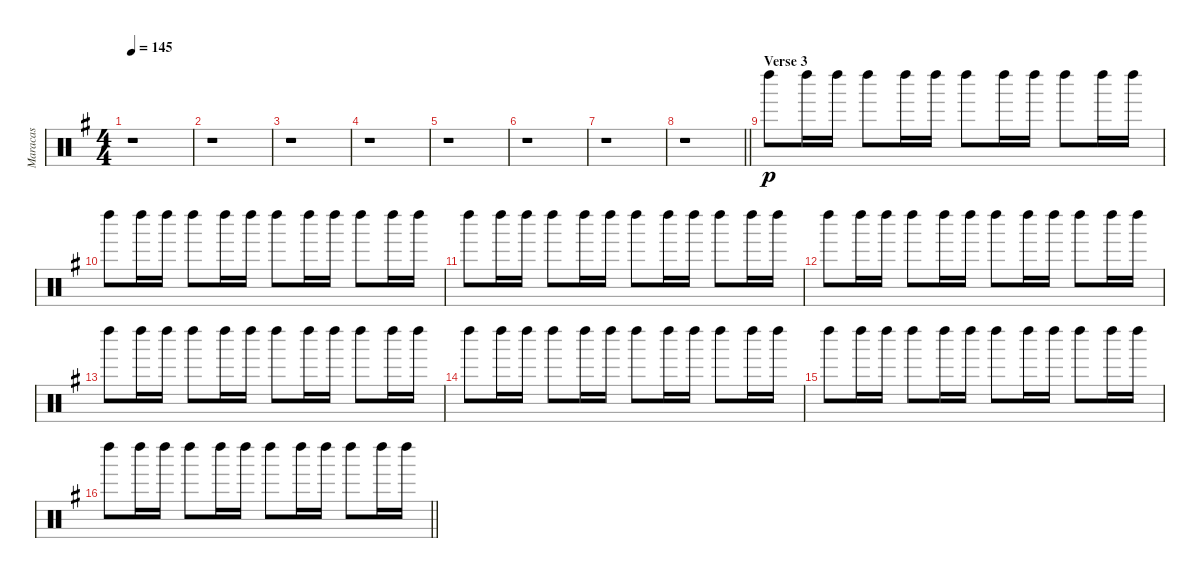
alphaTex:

\track ("Maracas" "Maracas") {instrument percussion}
\staff {score}
\articulation defaults
\ts (4 4)
\tempo 145
\clef neutral
\ks g
r.1{dy p} |
r.1 |
r.1 |
r.1 |
r.1 |
r.1 |
r.1 |
\barLineRight lightlight
r.1 |
\section ("" "Verse 3")
"Left Maraca (hit)".8 "Left Maraca (hit)".16 "Left Maraca (hit)".16 "Left Maraca (hit)".8 "Left Maraca (hit)".16 "Left Maraca (hit)".16 "Left Maraca (hit)".8 "Left Maraca (hit)".16 "Left Maraca (hit)".16 "Left Maraca (hit)".8 "Left Maraca (hit)".16 "Left Maraca (hit)".16 |
"Left Maraca (hit)".8 "Left Maraca (hit)".16 "Left Maraca (hit)".16 "Left Maraca (hit)".8 "Left Maraca (hit)".16 "Left Maraca (hit)".16 "Left Maraca (hit)".8 "Left Maraca (hit)".16 "Left Maraca (hit)".16 "Left Maraca (hit)".8 "Left Maraca (hit)".16 "Left Maraca (hit)".16 |
"Left Maraca (hit)".8 "Left Maraca (hit)".16 "Left Maraca (hit)".16 "Left Maraca (hit)".8 "Left Maraca (hit)".16 "Left Maraca (hit)".16 "Left Maraca (hit)".8 "Left Maraca (hit)".16 "Left Maraca (hit)".16 "Left Maraca (hit)".8 "Left Maraca (hit)".16 "Left Maraca (hit)".16 |
"Left Maraca (hit)".8 "Left Maraca (hit)".16 "Left Maraca (hit)".16 "Left Maraca (hit)".8 "Left Maraca (hit)".16 "Left Maraca (hit)".16 "Left Maraca (hit)".8 "Left Maraca (hit)".16 "Left Maraca (hit)".16 "Left Maraca (hit)".8 "Left Maraca (hit)".16 "Left Maraca (hit)".16 |
"Left Maraca (hit)".8 "Left Maraca (hit)".16 "Left Maraca (hit)".16 "Left Maraca (hit)".8 "Left Maraca (hit)".16 "Left Maraca (hit)".16 "Left Maraca (hit)".8 "Left Maraca (hit)".16 "Left Maraca (hit)".16 "Left Maraca (hit)".8 "Left Maraca (hit)".16 "Left Maraca (hit)".16 |
"Left Maraca (hit)".8 "Left Maraca (hit)".16 "Left Maraca (hit)".16 "Left Maraca (hit)".8 "Left Maraca (hit)".16 "Left Maraca (hit)".16 "Left Maraca (hit)".8 "Left Maraca (hit)".16 "Left Maraca (hit)".16 "Left Maraca (hit)".8 "Left Maraca (hit)".16 "Left Maraca (hit)".16 |
"Left Maraca (hit)".8 "Left Maraca (hit)".16 "Left Maraca (hit)".16 "Left Maraca (hit)".8 "Left Maraca (hit)".16 "Left Maraca (hit)".16 "Left Maraca (hit)".8 "Left Maraca (hit)".16 "Left Maraca (hit)".16 "Left Maraca (hit)".8 "Left Maraca (hit)".16 "Left Maraca (hit)".16 |
\barLineRight lightlight "Left Maraca (hit)".8 "Left Maraca (hit)".16 "Left Maraca (hit)".16 "Left Maraca (hit)".8 "Left Maraca (hit)".16 "Left Maraca (hit)".16 "Left Maraca (hit)".8 "Left Maraca (hit)".16 "Left Maraca (hit)".16 "Left Maraca (hit)".8 "Left Maraca (hit)".16 "Left Maraca (hit)".16
